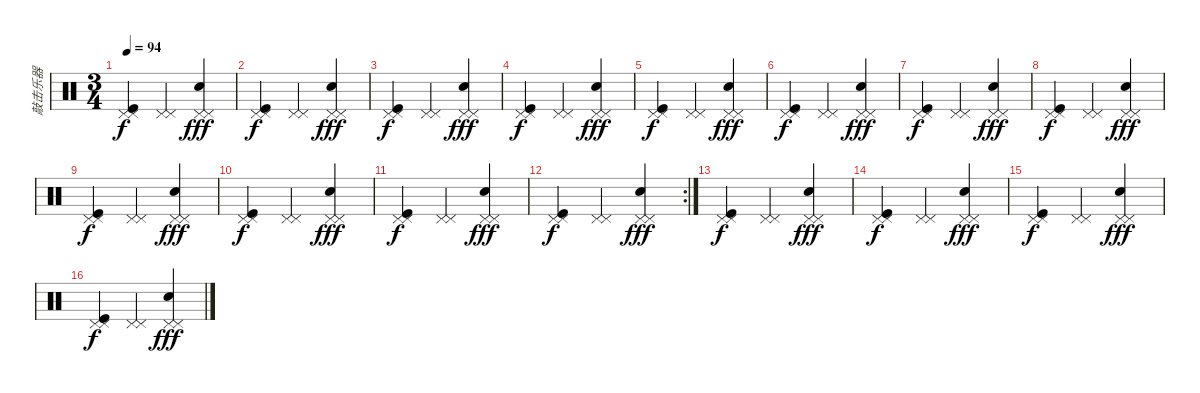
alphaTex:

\track ("敲击乐器" "敲击乐器") {instrument percussion}
\staff {score}
\articulation defaults
\ts (3 4)
\tempo 94
\clef neutral
\ks c
("Pedal Hi-Hat (hit)" "Pedal Hi-Hat (hit)" "Kick (hit)").4{dy f} ("Pedal Hi-Hat (hit)" "Pedal Hi-Hat (hit)").4 ("Pedal Hi-Hat (hit)" "Pedal Hi-Hat (hit)" "Snare (hit) 2").4{dy fff} |
("Pedal Hi-Hat (hit)" "Pedal Hi-Hat (hit)" "Kick (hit)").4{dy f} ("Pedal Hi-Hat (hit)" "Pedal Hi-Hat (hit)").4 ("Pedal Hi-Hat (hit)" "Pedal Hi-Hat (hit)" "Snare (hit) 2").4{dy fff} |
("Pedal Hi-Hat (hit)" "Pedal Hi-Hat (hit)" "Kick (hit)").4{dy f} ("Pedal Hi-Hat (hit)" "Pedal Hi-Hat (hit)").4 ("Pedal Hi-Hat (hit)" "Pedal Hi-Hat (hit)" "Snare (hit) 2").4{dy fff} |
("Pedal Hi-Hat (hit)" "Pedal Hi-Hat (hit)" "Kick (hit)").4{dy f} ("Pedal Hi-Hat (hit)" "Pedal Hi-Hat (hit)").4 ("Pedal Hi-Hat (hit)" "Pedal Hi-Hat (hit)" "Snare (hit) 2").4{dy fff} |
("Pedal Hi-Hat (hit)" "Pedal Hi-Hat (hit)" "Kick (hit)").4{dy f} ("Pedal Hi-Hat (hit)" "Pedal Hi-Hat (hit)").4 ("Pedal Hi-Hat (hit)" "Pedal Hi-Hat (hit)" "Snare (hit) 2").4{dy fff} |
("Pedal Hi-Hat (hit)" "Pedal Hi-Hat (hit)" "Kick (hit)").4{dy f} ("Pedal Hi-Hat (hit)" "Pedal Hi-Hat (hit)").4 ("Pedal Hi-Hat (hit)" "Pedal Hi-Hat (hit)" "Snare (hit) 2").4{dy fff} |
("Pedal Hi-Hat (hit)" "Pedal Hi-Hat (hit)" "Kick (hit)").4{dy f} ("Pedal Hi-Hat (hit)" "Pedal Hi-Hat (hit)").4 ("Pedal Hi-Hat (hit)" "Pedal Hi-Hat (hit)" "Snare (hit) 2").4{dy fff} |
("Pedal Hi-Hat (hit)" "Pedal Hi-Hat (hit)" "Kick (hit)").4{dy f} ("Pedal Hi-Hat (hit)" "Pedal Hi-Hat (hit)").4 ("Pedal Hi-Hat (hit)" "Pedal Hi-Hat (hit)" "Snare (hit) 2").4{dy fff} |
("Pedal Hi-Hat (hit)" "Pedal Hi-Hat (hit)" "Kick (hit)").4{dy f} ("Pedal Hi-Hat (hit)" "Pedal Hi-Hat (hit)").4 ("Pedal Hi-Hat (hit)" "Pedal Hi-Hat (hit)" "Snare (hit) 2").4{dy fff} |
("Pedal Hi-Hat (hit)" "Pedal Hi-Hat (hit)" "Kick (hit)").4{dy f} ("Pedal Hi-Hat (hit)" "Pedal Hi-Hat (hit)").4 ("Pedal Hi-Hat (hit)" "Pedal Hi-Hat (hit)" "Snare (hit) 2").4{dy fff} |
("Pedal Hi-Hat (hit)" "Pedal Hi-Hat (hit)" "Kick (hit)").4{dy f} ("Pedal Hi-Hat (hit)" "Pedal Hi-Hat (hit)").4 ("Pedal Hi-Hat (hit)" "Pedal Hi-Hat (hit)" "Snare (hit) 2").4{dy fff} |
\rc 2
("Pedal Hi-Hat (hit)" "Pedal Hi-Hat (hit)" "Kick (hit)").4{dy f} ("Pedal Hi-Hat (hit)" "Pedal Hi-Hat (hit)").4 ("Pedal Hi-Hat (hit)" "Pedal Hi-Hat (hit)" "Snare (hit) 2").4{dy fff} |
("Pedal Hi-Hat (hit)" "Pedal Hi-Hat (hit)" "Kick (hit)").4{dy f} ("Pedal Hi-Hat (hit)" "Pedal Hi-Hat (hit)").4 ("Pedal Hi-Hat (hit)" "Pedal Hi-Hat (hit)" "Snare (hit) 2").4{dy fff} |
("Pedal Hi-Hat (hit)" "Pedal Hi-Hat (hit)" "Kick (hit)").4{dy f} ("Pedal Hi-Hat (hit)" "Pedal Hi-Hat (hit)").4 ("Pedal Hi-Hat (hit)" "Pedal Hi-Hat (hit)" "Snare (hit) 2").4{dy fff} |
("Pedal Hi-Hat (hit)" "Pedal Hi-Hat (hit)" "Kick (hit)").4{dy f} ("Pedal Hi-Hat (hit)" "Pedal Hi-Hat (hit)").4 ("Pedal Hi-Hat (hit)" "Pedal Hi-Hat (hit)" "Snare (hit) 2").4{dy fff} |
("Pedal Hi-Hat (hit)" "Pedal Hi-Hat (hit)" "Kick (hit)").4{dy f} ("Pedal Hi-Hat (hit)" "Pedal Hi-Hat (hit)").4 ("Pedal Hi-Hat (hit)" "Pedal Hi-Hat (hit)" "Snare (hit) 2").4{dy fff}
